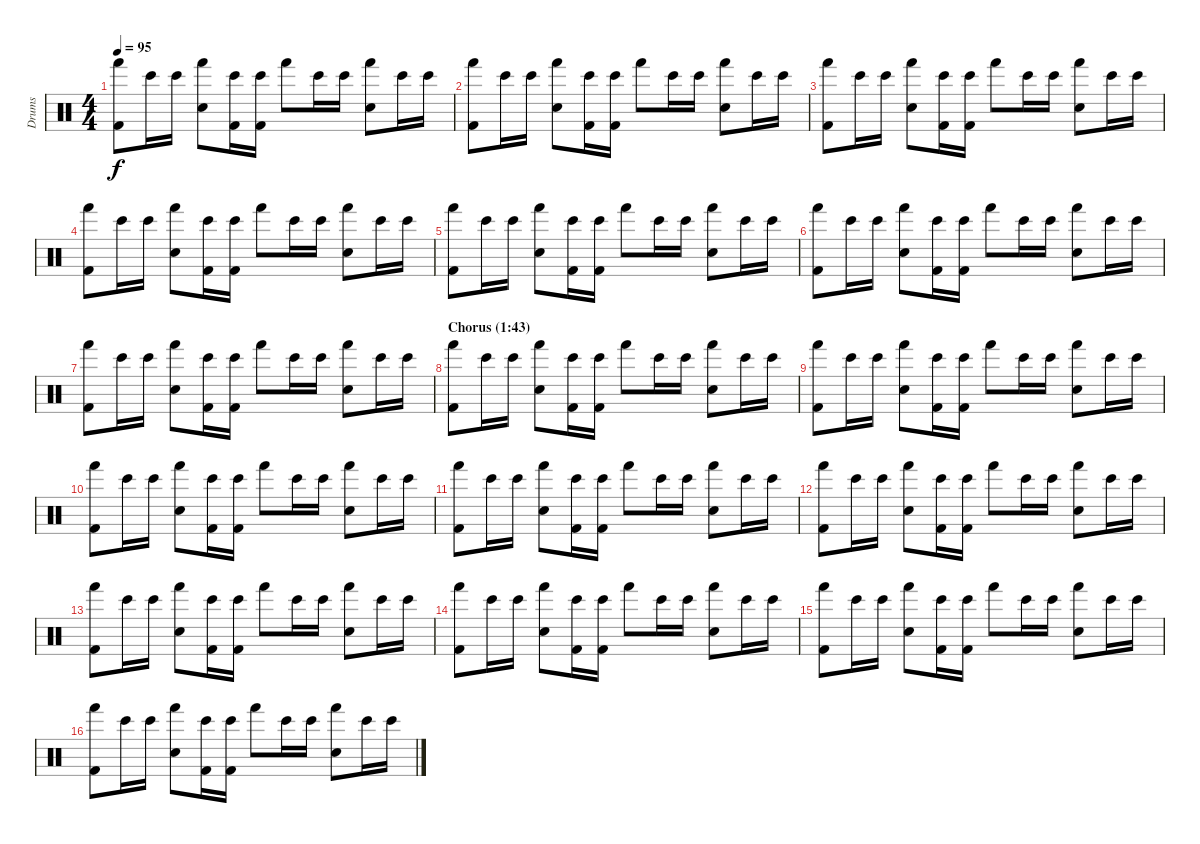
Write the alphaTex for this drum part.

\track ("Drums" "Drums") {instrument percussion}
\staff {score}
\articulation defaults
\ts (4 4)
\tempo 95
\clef neutral
\ks c
("Hand (hit)" "Kick (hit) 2").8{dy f} "Bongo High (hit)".16 "Bongo High (hit)".16 ("Hand (hit)" "Snare (hit) 2").8 ("Bongo High (hit)" "Kick (hit) 2").16 ("Bongo High (hit)" "Kick (hit) 2").16 "Hand (hit)".8 "Bongo High (hit)".16 "Bongo High (hit)".16 ("Hand (hit)" "Snare (hit) 2").8 "Bongo High (hit)".16 "Bongo High (hit)".16 |
("Hand (hit)" "Kick (hit) 2").8 "Bongo High (hit)".16 "Bongo High (hit)".16 ("Hand (hit)" "Snare (hit) 2").8 ("Bongo High (hit)" "Kick (hit) 2").16 ("Bongo High (hit)" "Kick (hit) 2").16 "Hand (hit)".8 "Bongo High (hit)".16 "Bongo High (hit)".16 ("Hand (hit)" "Snare (hit) 2").8 "Bongo High (hit)".16 "Bongo High (hit)".16 |
("Hand (hit)" "Kick (hit) 2").8 "Bongo High (hit)".16 "Bongo High (hit)".16 ("Hand (hit)" "Snare (hit) 2").8 ("Bongo High (hit)" "Kick (hit) 2").16 ("Bongo High (hit)" "Kick (hit) 2").16 "Hand (hit)".8 "Bongo High (hit)".16 "Bongo High (hit)".16 ("Hand (hit)" "Snare (hit) 2").8 "Bongo High (hit)".16 "Bongo High (hit)".16 |
("Hand (hit)" "Kick (hit) 2").8 "Bongo High (hit)".16 "Bongo High (hit)".16 ("Hand (hit)" "Snare (hit) 2").8 ("Bongo High (hit)" "Kick (hit) 2").16 ("Bongo High (hit)" "Kick (hit) 2").16 "Hand (hit)".8 "Bongo High (hit)".16 "Bongo High (hit)".16 ("Hand (hit)" "Snare (hit) 2").8 "Bongo High (hit)".16 "Bongo High (hit)".16 |
("Hand (hit)" "Kick (hit) 2").8 "Bongo High (hit)".16 "Bongo High (hit)".16 ("Hand (hit)" "Snare (hit) 2").8 ("Bongo High (hit)" "Kick (hit) 2").16 ("Bongo High (hit)" "Kick (hit) 2").16 "Hand (hit)".8 "Bongo High (hit)".16 "Bongo High (hit)".16 ("Hand (hit)" "Snare (hit) 2").8 "Bongo High (hit)".16 "Bongo High (hit)".16 |
("Hand (hit)" "Kick (hit) 2").8 "Bongo High (hit)".16 "Bongo High (hit)".16 ("Hand (hit)" "Snare (hit) 2").8 ("Bongo High (hit)" "Kick (hit) 2").16 ("Bongo High (hit)" "Kick (hit) 2").16 "Hand (hit)".8 "Bongo High (hit)".16 "Bongo High (hit)".16 ("Hand (hit)" "Snare (hit) 2").8 "Bongo High (hit)".16 "Bongo High (hit)".16 |
("Hand (hit)" "Kick (hit) 2").8 "Bongo High (hit)".16 "Bongo High (hit)".16 ("Hand (hit)" "Snare (hit) 2").8 ("Bongo High (hit)" "Kick (hit) 2").16 ("Bongo High (hit)" "Kick (hit) 2").16 "Hand (hit)".8 "Bongo High (hit)".16 "Bongo High (hit)".16 ("Hand (hit)" "Snare (hit) 2").8 "Bongo High (hit)".16 "Bongo High (hit)".16 |
\section ("" "Chorus (1:43)")
("Hand (hit)" "Kick (hit) 2").8 "Bongo High (hit)".16 "Bongo High (hit)".16 ("Hand (hit)" "Snare (hit) 2").8 ("Bongo High (hit)" "Kick (hit) 2").16 ("Bongo High (hit)" "Kick (hit) 2").16 "Hand (hit)".8 "Bongo High (hit)".16 "Bongo High (hit)".16 ("Hand (hit)" "Snare (hit) 2").8 "Bongo High (hit)".16 "Bongo High (hit)".16 |
("Hand (hit)" "Kick (hit) 2").8 "Bongo High (hit)".16 "Bongo High (hit)".16 ("Hand (hit)" "Snare (hit) 2").8 ("Bongo High (hit)" "Kick (hit) 2").16 ("Bongo High (hit)" "Kick (hit) 2").16 "Hand (hit)".8 "Bongo High (hit)".16 "Bongo High (hit)".16 ("Hand (hit)" "Snare (hit) 2").8 "Bongo High (hit)".16 "Bongo High (hit)".16 |
("Hand (hit)" "Kick (hit) 2").8 "Bongo High (hit)".16 "Bongo High (hit)".16 ("Hand (hit)" "Snare (hit) 2").8 ("Bongo High (hit)" "Kick (hit) 2").16 ("Bongo High (hit)" "Kick (hit) 2").16 "Hand (hit)".8 "Bongo High (hit)".16 "Bongo High (hit)".16 ("Hand (hit)" "Snare (hit) 2").8 "Bongo High (hit)".16 "Bongo High (hit)".16 |
("Hand (hit)" "Kick (hit) 2").8 "Bongo High (hit)".16 "Bongo High (hit)".16 ("Hand (hit)" "Snare (hit) 2").8 ("Bongo High (hit)" "Kick (hit) 2").16 ("Bongo High (hit)" "Kick (hit) 2").16 "Hand (hit)".8 "Bongo High (hit)".16 "Bongo High (hit)".16 ("Hand (hit)" "Snare (hit) 2").8 "Bongo High (hit)".16 "Bongo High (hit)".16 |
("Hand (hit)" "Kick (hit) 2").8 "Bongo High (hit)".16 "Bongo High (hit)".16 ("Hand (hit)" "Snare (hit) 2").8 ("Bongo High (hit)" "Kick (hit) 2").16 ("Bongo High (hit)" "Kick (hit) 2").16 "Hand (hit)".8 "Bongo High (hit)".16 "Bongo High (hit)".16 ("Hand (hit)" "Snare (hit) 2").8 "Bongo High (hit)".16 "Bongo High (hit)".16 |
("Hand (hit)" "Kick (hit) 2").8 "Bongo High (hit)".16 "Bongo High (hit)".16 ("Hand (hit)" "Snare (hit) 2").8 ("Bongo High (hit)" "Kick (hit) 2").16 ("Bongo High (hit)" "Kick (hit) 2").16 "Hand (hit)".8 "Bongo High (hit)".16 "Bongo High (hit)".16 ("Hand (hit)" "Snare (hit) 2").8 "Bongo High (hit)".16 "Bongo High (hit)".16 |
("Hand (hit)" "Kick (hit) 2").8 "Bongo High (hit)".16 "Bongo High (hit)".16 ("Hand (hit)" "Snare (hit) 2").8 ("Bongo High (hit)" "Kick (hit) 2").16 ("Bongo High (hit)" "Kick (hit) 2").16 "Hand (hit)".8 "Bongo High (hit)".16 "Bongo High (hit)".16 ("Hand (hit)" "Snare (hit) 2").8 "Bongo High (hit)".16 "Bongo High (hit)".16 |
("Hand (hit)" "Kick (hit) 2").8 "Bongo High (hit)".16 "Bongo High (hit)".16 ("Hand (hit)" "Snare (hit) 2").8 ("Bongo High (hit)" "Kick (hit) 2").16 ("Bongo High (hit)" "Kick (hit) 2").16 "Hand (hit)".8 "Bongo High (hit)".16 "Bongo High (hit)".16 ("Hand (hit)" "Snare (hit) 2").8 "Bongo High (hit)".16 "Bongo High (hit)".16 |
("Hand (hit)" "Kick (hit) 2").8 "Bongo High (hit)".16 "Bongo High (hit)".16 ("Hand (hit)" "Snare (hit) 2").8 ("Bongo High (hit)" "Kick (hit) 2").16 ("Bongo High (hit)" "Kick (hit) 2").16 "Hand (hit)".8 "Bongo High (hit)".16 "Bongo High (hit)".16 ("Hand (hit)" "Snare (hit) 2").8 "Bongo High (hit)".16 "Bongo High (hit)".16
